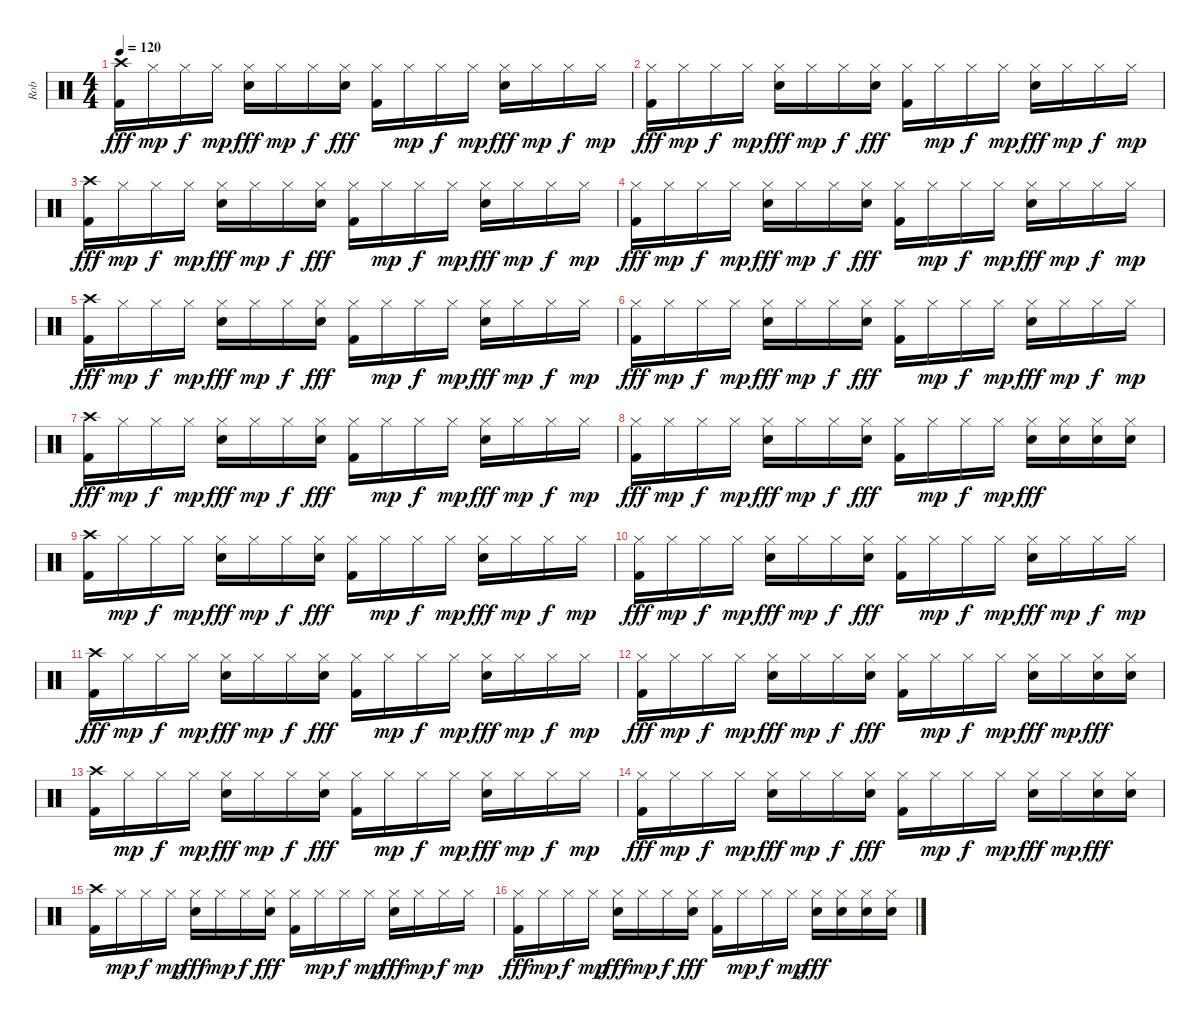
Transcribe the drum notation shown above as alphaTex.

\track ("Rob" "Rob") {instrument percussion}
\staff {score}
\articulation defaults
\ts (4 4)
\tempo 120
\clef neutral
\ks c
("Crash high (hit)" "Kick (hit) 2").16{dy fff} "Hi-Hat (closed)".16{dy mp} "Hi-Hat (closed)".16{dy f} "Hi-Hat (closed)".16{dy mp} ("Hi-Hat (closed)" "Electric Snare (hit)").16{dy fff} "Hi-Hat (closed)".16{dy mp} "Hi-Hat (closed)".16{dy f} ("Hi-Hat (closed)" "Electric Snare (hit)").16{dy fff} ("Hi-Hat (closed)" "Kick (hit) 2").16 "Hi-Hat (closed)".16{dy mp} "Hi-Hat (closed)".16{dy f} "Hi-Hat (closed)".16{dy mp} ("Hi-Hat (closed)" "Electric Snare (hit)").16{dy fff} "Hi-Hat (closed)".16{dy mp} "Hi-Hat (closed)".16{dy f} "Hi-Hat (closed)".16{dy mp} |
("Hi-Hat (closed)" "Kick (hit) 2").16{dy fff} "Hi-Hat (closed)".16{dy mp} "Hi-Hat (closed)".16{dy f} "Hi-Hat (closed)".16{dy mp} ("Hi-Hat (closed)" "Electric Snare (hit)").16{dy fff} "Hi-Hat (closed)".16{dy mp} "Hi-Hat (closed)".16{dy f} ("Hi-Hat (closed)" "Electric Snare (hit)").16{dy fff} ("Hi-Hat (closed)" "Kick (hit) 2").16 "Hi-Hat (closed)".16{dy mp} "Hi-Hat (closed)".16{dy f} "Hi-Hat (closed)".16{dy mp} ("Hi-Hat (closed)" "Electric Snare (hit)").16{dy fff} "Hi-Hat (closed)".16{dy mp} "Hi-Hat (closed)".16{dy f} "Hi-Hat (closed)".16{dy mp} |
("Crash high (hit)" "Kick (hit) 2").16{dy fff} "Hi-Hat (closed)".16{dy mp} "Hi-Hat (closed)".16{dy f} "Hi-Hat (closed)".16{dy mp} ("Hi-Hat (closed)" "Electric Snare (hit)").16{dy fff} "Hi-Hat (closed)".16{dy mp} "Hi-Hat (closed)".16{dy f} ("Hi-Hat (closed)" "Electric Snare (hit)").16{dy fff} ("Hi-Hat (closed)" "Kick (hit) 2").16 "Hi-Hat (closed)".16{dy mp} "Hi-Hat (closed)".16{dy f} "Hi-Hat (closed)".16{dy mp} ("Hi-Hat (closed)" "Electric Snare (hit)").16{dy fff} "Hi-Hat (closed)".16{dy mp} "Hi-Hat (closed)".16{dy f} "Hi-Hat (closed)".16{dy mp} |
("Hi-Hat (closed)" "Kick (hit) 2").16{dy fff} "Hi-Hat (closed)".16{dy mp} "Hi-Hat (closed)".16{dy f} "Hi-Hat (closed)".16{dy mp} ("Hi-Hat (closed)" "Electric Snare (hit)").16{dy fff} "Hi-Hat (closed)".16{dy mp} "Hi-Hat (closed)".16{dy f} ("Hi-Hat (closed)" "Electric Snare (hit)").16{dy fff} ("Hi-Hat (closed)" "Kick (hit) 2").16 "Hi-Hat (closed)".16{dy mp} "Hi-Hat (closed)".16{dy f} "Hi-Hat (closed)".16{dy mp} ("Hi-Hat (closed)" "Electric Snare (hit)").16{dy fff} "Hi-Hat (closed)".16{dy mp} "Hi-Hat (closed)".16{dy f} "Hi-Hat (closed)".16{dy mp} |
("Crash high (hit)" "Kick (hit) 2").16{dy fff} "Hi-Hat (closed)".16{dy mp} "Hi-Hat (closed)".16{dy f} "Hi-Hat (closed)".16{dy mp} ("Hi-Hat (closed)" "Electric Snare (hit)").16{dy fff} "Hi-Hat (closed)".16{dy mp} "Hi-Hat (closed)".16{dy f} ("Hi-Hat (closed)" "Electric Snare (hit)").16{dy fff} ("Hi-Hat (closed)" "Kick (hit) 2").16 "Hi-Hat (closed)".16{dy mp} "Hi-Hat (closed)".16{dy f} "Hi-Hat (closed)".16{dy mp} ("Hi-Hat (closed)" "Electric Snare (hit)").16{dy fff} "Hi-Hat (closed)".16{dy mp} "Hi-Hat (closed)".16{dy f} "Hi-Hat (closed)".16{dy mp} |
("Hi-Hat (closed)" "Kick (hit) 2").16{dy fff} "Hi-Hat (closed)".16{dy mp} "Hi-Hat (closed)".16{dy f} "Hi-Hat (closed)".16{dy mp} ("Hi-Hat (closed)" "Electric Snare (hit)").16{dy fff} "Hi-Hat (closed)".16{dy mp} "Hi-Hat (closed)".16{dy f} ("Hi-Hat (closed)" "Electric Snare (hit)").16{dy fff} ("Hi-Hat (closed)" "Kick (hit) 2").16 "Hi-Hat (closed)".16{dy mp} "Hi-Hat (closed)".16{dy f} "Hi-Hat (closed)".16{dy mp} ("Hi-Hat (closed)" "Electric Snare (hit)").16{dy fff} "Hi-Hat (closed)".16{dy mp} "Hi-Hat (closed)".16{dy f} "Hi-Hat (closed)".16{dy mp} |
("Crash high (hit)" "Kick (hit) 2").16{dy fff} "Hi-Hat (closed)".16{dy mp} "Hi-Hat (closed)".16{dy f} "Hi-Hat (closed)".16{dy mp} ("Hi-Hat (closed)" "Electric Snare (hit)").16{dy fff} "Hi-Hat (closed)".16{dy mp} "Hi-Hat (closed)".16{dy f} ("Hi-Hat (closed)" "Electric Snare (hit)").16{dy fff} ("Hi-Hat (closed)" "Kick (hit) 2").16 "Hi-Hat (closed)".16{dy mp} "Hi-Hat (closed)".16{dy f} "Hi-Hat (closed)".16{dy mp} ("Hi-Hat (closed)" "Electric Snare (hit)").16{dy fff} "Hi-Hat (closed)".16{dy mp} "Hi-Hat (closed)".16{dy f} "Hi-Hat (closed)".16{dy mp} |
("Hi-Hat (closed)" "Kick (hit) 2").16{dy fff} "Hi-Hat (closed)".16{dy mp} "Hi-Hat (closed)".16{dy f} "Hi-Hat (closed)".16{dy mp} ("Hi-Hat (closed)" "Electric Snare (hit)").16{dy fff} "Hi-Hat (closed)".16{dy mp} "Hi-Hat (closed)".16{dy f} ("Hi-Hat (closed)" "Electric Snare (hit)").16{dy fff} ("Hi-Hat (closed)" "Kick (hit) 2").16 "Hi-Hat (closed)".16{dy mp} "Hi-Hat (closed)".16{dy f} "Hi-Hat (closed)".16{dy mp} ("Hi-Hat (closed)" "Electric Snare (hit)").16{dy fff} ("Hi-Hat (closed)" "Electric Snare (hit)").16 ("Hi-Hat (closed)" "Electric Snare (hit)").16 ("Hi-Hat (closed)" "Electric Snare (hit)").16 |
("Crash high (hit)" "Kick (hit) 2").16 "Hi-Hat (closed)".16{dy mp} "Hi-Hat (closed)".16{dy f} "Hi-Hat (closed)".16{dy mp} ("Hi-Hat (closed)" "Electric Snare (hit)").16{dy fff} "Hi-Hat (closed)".16{dy mp} "Hi-Hat (closed)".16{dy f} ("Hi-Hat (closed)" "Electric Snare (hit)").16{dy fff} ("Hi-Hat (closed)" "Kick (hit) 2").16 "Hi-Hat (closed)".16{dy mp} "Hi-Hat (closed)".16{dy f} "Hi-Hat (closed)".16{dy mp} ("Hi-Hat (closed)" "Electric Snare (hit)").16{dy fff} "Hi-Hat (closed)".16{dy mp} "Hi-Hat (closed)".16{dy f} "Hi-Hat (closed)".16{dy mp} |
("Hi-Hat (closed)" "Kick (hit) 2").16{dy fff} "Hi-Hat (closed)".16{dy mp} "Hi-Hat (closed)".16{dy f} "Hi-Hat (closed)".16{dy mp} ("Hi-Hat (closed)" "Electric Snare (hit)").16{dy fff} "Hi-Hat (closed)".16{dy mp} "Hi-Hat (closed)".16{dy f} ("Hi-Hat (closed)" "Electric Snare (hit)").16{dy fff} ("Hi-Hat (closed)" "Kick (hit) 2").16 "Hi-Hat (closed)".16{dy mp} "Hi-Hat (closed)".16{dy f} "Hi-Hat (closed)".16{dy mp} ("Hi-Hat (closed)" "Electric Snare (hit)").16{dy fff} "Hi-Hat (closed)".16{dy mp} "Hi-Hat (closed)".16{dy f} "Hi-Hat (closed)".16{dy mp} |
("Crash high (hit)" "Kick (hit) 2").16{dy fff} "Hi-Hat (closed)".16{dy mp} "Hi-Hat (closed)".16{dy f} "Hi-Hat (closed)".16{dy mp} ("Hi-Hat (closed)" "Electric Snare (hit)").16{dy fff} "Hi-Hat (closed)".16{dy mp} "Hi-Hat (closed)".16{dy f} ("Hi-Hat (closed)" "Electric Snare (hit)").16{dy fff} ("Hi-Hat (closed)" "Kick (hit) 2").16 "Hi-Hat (closed)".16{dy mp} "Hi-Hat (closed)".16{dy f} "Hi-Hat (closed)".16{dy mp} ("Hi-Hat (closed)" "Electric Snare (hit)").16{dy fff} "Hi-Hat (closed)".16{dy mp} "Hi-Hat (closed)".16{dy f} "Hi-Hat (closed)".16{dy mp} |
("Hi-Hat (closed)" "Kick (hit) 2").16{dy fff} "Hi-Hat (closed)".16{dy mp} "Hi-Hat (closed)".16{dy f} "Hi-Hat (closed)".16{dy mp} ("Hi-Hat (closed)" "Electric Snare (hit)").16{dy fff} "Hi-Hat (closed)".16{dy mp} "Hi-Hat (closed)".16{dy f} ("Hi-Hat (closed)" "Electric Snare (hit)").16{dy fff} ("Hi-Hat (closed)" "Kick (hit) 2").16 "Hi-Hat (closed)".16{dy mp} "Hi-Hat (closed)".16{dy f} "Hi-Hat (closed)".16{dy mp} ("Hi-Hat (closed)" "Electric Snare (hit)").16{dy fff} "Hi-Hat (closed)".16{dy mp} ("Hi-Hat (closed)" "Electric Snare (hit)").16{dy fff} ("Hi-Hat (closed)" "Electric Snare (hit)").16 |
("Crash high (hit)" "Kick (hit) 2").16 "Hi-Hat (closed)".16{dy mp} "Hi-Hat (closed)".16{dy f} "Hi-Hat (closed)".16{dy mp} ("Hi-Hat (closed)" "Electric Snare (hit)").16{dy fff} "Hi-Hat (closed)".16{dy mp} "Hi-Hat (closed)".16{dy f} ("Hi-Hat (closed)" "Electric Snare (hit)").16{dy fff} ("Hi-Hat (closed)" "Kick (hit) 2").16 "Hi-Hat (closed)".16{dy mp} "Hi-Hat (closed)".16{dy f} "Hi-Hat (closed)".16{dy mp} ("Hi-Hat (closed)" "Electric Snare (hit)").16{dy fff} "Hi-Hat (closed)".16{dy mp} "Hi-Hat (closed)".16{dy f} "Hi-Hat (closed)".16{dy mp} |
("Hi-Hat (closed)" "Kick (hit) 2").16{dy fff} "Hi-Hat (closed)".16{dy mp} "Hi-Hat (closed)".16{dy f} "Hi-Hat (closed)".16{dy mp} ("Hi-Hat (closed)" "Electric Snare (hit)").16{dy fff} "Hi-Hat (closed)".16{dy mp} "Hi-Hat (closed)".16{dy f} ("Hi-Hat (closed)" "Electric Snare (hit)").16{dy fff} ("Hi-Hat (closed)" "Kick (hit) 2").16 "Hi-Hat (closed)".16{dy mp} "Hi-Hat (closed)".16{dy f} "Hi-Hat (closed)".16{dy mp} ("Hi-Hat (closed)" "Electric Snare (hit)").16{dy fff} "Hi-Hat (closed)".16{dy mp} ("Hi-Hat (closed)" "Electric Snare (hit)").16{dy fff} ("Hi-Hat (closed)" "Electric Snare (hit)").16 |
("Crash high (hit)" "Kick (hit) 2").16 "Hi-Hat (closed)".16{dy mp} "Hi-Hat (closed)".16{dy f} "Hi-Hat (closed)".16{dy mp} ("Hi-Hat (closed)" "Electric Snare (hit)").16{dy fff} "Hi-Hat (closed)".16{dy mp} "Hi-Hat (closed)".16{dy f} ("Hi-Hat (closed)" "Electric Snare (hit)").16{dy fff} ("Hi-Hat (closed)" "Kick (hit) 2").16 "Hi-Hat (closed)".16{dy mp} "Hi-Hat (closed)".16{dy f} "Hi-Hat (closed)".16{dy mp} ("Hi-Hat (closed)" "Electric Snare (hit)").16{dy fff} "Hi-Hat (closed)".16{dy mp} "Hi-Hat (closed)".16{dy f} "Hi-Hat (closed)".16{dy mp} |
("Hi-Hat (closed)" "Kick (hit) 2").16{dy fff} "Hi-Hat (closed)".16{dy mp} "Hi-Hat (closed)".16{dy f} "Hi-Hat (closed)".16{dy mp} ("Hi-Hat (closed)" "Electric Snare (hit)").16{dy fff} "Hi-Hat (closed)".16{dy mp} "Hi-Hat (closed)".16{dy f} ("Hi-Hat (closed)" "Electric Snare (hit)").16{dy fff} ("Hi-Hat (closed)" "Kick (hit) 2").16 "Hi-Hat (closed)".16{dy mp} "Hi-Hat (closed)".16{dy f} "Hi-Hat (closed)".16{dy mp} ("Hi-Hat (closed)" "Electric Snare (hit)").16{dy fff} ("Hi-Hat (closed)" "Electric Snare (hit)").16 ("Hi-Hat (closed)" "Electric Snare (hit)").16 ("Hi-Hat (closed)" "Electric Snare (hit)").16
